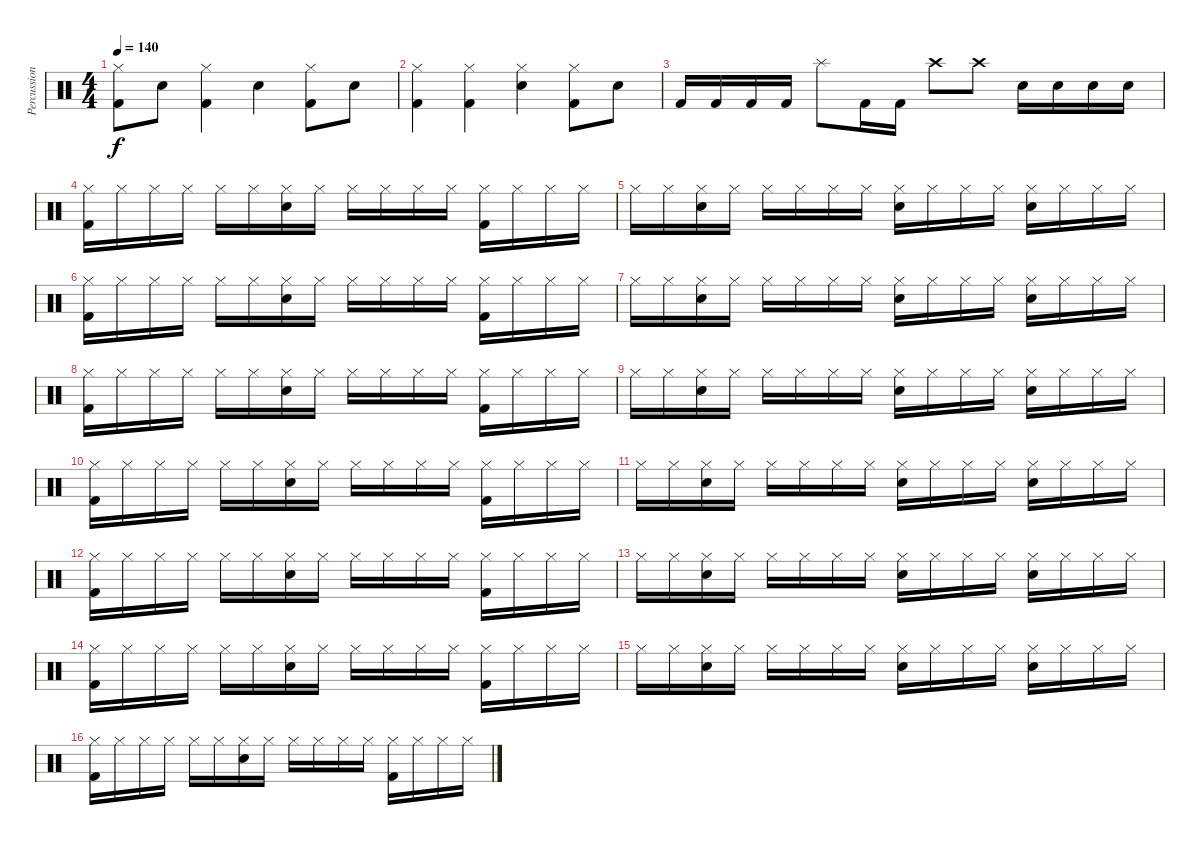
\track ("Percussion" "Percussion") {instrument percussion}
\staff {score}
\articulation defaults
\ts (4 4)
\tempo 140
\clef neutral
\ks c
("Hi-Hat (closed)" "Kick (hit) 2").8{dy f} "Electric Snare (hit)".8 ("Hi-Hat (closed)" "Kick (hit) 2").4 "Electric Snare (hit)".4 ("Hi-Hat (closed)" "Kick (hit) 2").8 "Electric Snare (hit)".8 |
("Hi-Hat (closed)" "Kick (hit) 2").4 ("Hi-Hat (closed)" "Kick (hit) 2").4 ("Hi-Hat (closed)" "Electric Snare (hit)").4 ("Hi-Hat (closed)" "Kick (hit) 2").8 "Electric Snare (hit)".8 |
"Kick (hit) 2".16 "Kick (hit) 2".16 "Kick (hit) 2".16 "Kick (hit) 2".16 "Splash (hit)".8 "Kick (hit) 2".16 "Kick (hit) 2".16 "Crash high (hit)".8 "Crash high (hit)".8 "Electric Snare (hit)".16 "Electric Snare (hit)".16 "Electric Snare (hit)".16 "Electric Snare (hit)".16 |
("Hi-Hat (closed)" "Kick (hit) 2").16 "Hi-Hat (closed)".16 "Hi-Hat (closed)".16 "Hi-Hat (closed)".16 "Hi-Hat (closed)".16 "Hi-Hat (closed)".16 ("Hi-Hat (closed)" "Electric Snare (hit)").16 "Hi-Hat (closed)".16 "Hi-Hat (closed)".16 "Hi-Hat (closed)".16 "Hi-Hat (closed)".16 "Hi-Hat (closed)".16 ("Hi-Hat (closed)" "Kick (hit) 2").16 "Hi-Hat (closed)".16 "Hi-Hat (closed)".16 "Hi-Hat (closed)".16 |
"Hi-Hat (closed)".16 "Hi-Hat (closed)".16 ("Hi-Hat (closed)" "Electric Snare (hit)").16 "Hi-Hat (closed)".16 "Hi-Hat (closed)".16 "Hi-Hat (closed)".16 "Hi-Hat (closed)".16 "Hi-Hat (closed)".16 ("Hi-Hat (closed)" "Electric Snare (hit)").16 "Hi-Hat (closed)".16 "Hi-Hat (closed)".16 "Hi-Hat (closed)".16 ("Hi-Hat (closed)" "Electric Snare (hit)").16 "Hi-Hat (closed)".16 "Hi-Hat (closed)".16 "Hi-Hat (closed)".16 |
("Hi-Hat (closed)" "Kick (hit) 2").16 "Hi-Hat (closed)".16 "Hi-Hat (closed)".16 "Hi-Hat (closed)".16 "Hi-Hat (closed)".16 "Hi-Hat (closed)".16 ("Hi-Hat (closed)" "Electric Snare (hit)").16 "Hi-Hat (closed)".16 "Hi-Hat (closed)".16 "Hi-Hat (closed)".16 "Hi-Hat (closed)".16 "Hi-Hat (closed)".16 ("Hi-Hat (closed)" "Kick (hit) 2").16 "Hi-Hat (closed)".16 "Hi-Hat (closed)".16 "Hi-Hat (closed)".16 |
"Hi-Hat (closed)".16 "Hi-Hat (closed)".16 ("Hi-Hat (closed)" "Electric Snare (hit)").16 "Hi-Hat (closed)".16 "Hi-Hat (closed)".16 "Hi-Hat (closed)".16 "Hi-Hat (closed)".16 "Hi-Hat (closed)".16 ("Hi-Hat (closed)" "Electric Snare (hit)").16 "Hi-Hat (closed)".16 "Hi-Hat (closed)".16 "Hi-Hat (closed)".16 ("Hi-Hat (closed)" "Electric Snare (hit)").16 "Hi-Hat (closed)".16 "Hi-Hat (closed)".16 "Hi-Hat (closed)".16 |
("Hi-Hat (closed)" "Kick (hit) 2").16 "Hi-Hat (closed)".16 "Hi-Hat (closed)".16 "Hi-Hat (closed)".16 "Hi-Hat (closed)".16 "Hi-Hat (closed)".16 ("Hi-Hat (closed)" "Electric Snare (hit)").16 "Hi-Hat (closed)".16 "Hi-Hat (closed)".16 "Hi-Hat (closed)".16 "Hi-Hat (closed)".16 "Hi-Hat (closed)".16 ("Hi-Hat (closed)" "Kick (hit) 2").16 "Hi-Hat (closed)".16 "Hi-Hat (closed)".16 "Hi-Hat (closed)".16 |
"Hi-Hat (closed)".16 "Hi-Hat (closed)".16 ("Hi-Hat (closed)" "Electric Snare (hit)").16 "Hi-Hat (closed)".16 "Hi-Hat (closed)".16 "Hi-Hat (closed)".16 "Hi-Hat (closed)".16 "Hi-Hat (closed)".16 ("Hi-Hat (closed)" "Electric Snare (hit)").16 "Hi-Hat (closed)".16 "Hi-Hat (closed)".16 "Hi-Hat (closed)".16 ("Hi-Hat (closed)" "Electric Snare (hit)").16 "Hi-Hat (closed)".16 "Hi-Hat (closed)".16 "Hi-Hat (closed)".16 |
("Hi-Hat (closed)" "Kick (hit) 2").16 "Hi-Hat (closed)".16 "Hi-Hat (closed)".16 "Hi-Hat (closed)".16 "Hi-Hat (closed)".16 "Hi-Hat (closed)".16 ("Hi-Hat (closed)" "Electric Snare (hit)").16 "Hi-Hat (closed)".16 "Hi-Hat (closed)".16 "Hi-Hat (closed)".16 "Hi-Hat (closed)".16 "Hi-Hat (closed)".16 ("Hi-Hat (closed)" "Kick (hit) 2").16 "Hi-Hat (closed)".16 "Hi-Hat (closed)".16 "Hi-Hat (closed)".16 |
"Hi-Hat (closed)".16 "Hi-Hat (closed)".16 ("Hi-Hat (closed)" "Electric Snare (hit)").16 "Hi-Hat (closed)".16 "Hi-Hat (closed)".16 "Hi-Hat (closed)".16 "Hi-Hat (closed)".16 "Hi-Hat (closed)".16 ("Hi-Hat (closed)" "Electric Snare (hit)").16 "Hi-Hat (closed)".16 "Hi-Hat (closed)".16 "Hi-Hat (closed)".16 ("Hi-Hat (closed)" "Electric Snare (hit)").16 "Hi-Hat (closed)".16 "Hi-Hat (closed)".16 "Hi-Hat (closed)".16 |
("Hi-Hat (closed)" "Kick (hit) 2").16 "Hi-Hat (closed)".16 "Hi-Hat (closed)".16 "Hi-Hat (closed)".16 "Hi-Hat (closed)".16 "Hi-Hat (closed)".16 ("Hi-Hat (closed)" "Electric Snare (hit)").16 "Hi-Hat (closed)".16 "Hi-Hat (closed)".16 "Hi-Hat (closed)".16 "Hi-Hat (closed)".16 "Hi-Hat (closed)".16 ("Hi-Hat (closed)" "Kick (hit) 2").16 "Hi-Hat (closed)".16 "Hi-Hat (closed)".16 "Hi-Hat (closed)".16 |
"Hi-Hat (closed)".16 "Hi-Hat (closed)".16 ("Hi-Hat (closed)" "Electric Snare (hit)").16 "Hi-Hat (closed)".16 "Hi-Hat (closed)".16 "Hi-Hat (closed)".16 "Hi-Hat (closed)".16 "Hi-Hat (closed)".16 ("Hi-Hat (closed)" "Electric Snare (hit)").16 "Hi-Hat (closed)".16 "Hi-Hat (closed)".16 "Hi-Hat (closed)".16 ("Hi-Hat (closed)" "Electric Snare (hit)").16 "Hi-Hat (closed)".16 "Hi-Hat (closed)".16 "Hi-Hat (closed)".16 |
("Hi-Hat (closed)" "Kick (hit) 2").16 "Hi-Hat (closed)".16 "Hi-Hat (closed)".16 "Hi-Hat (closed)".16 "Hi-Hat (closed)".16 "Hi-Hat (closed)".16 ("Hi-Hat (closed)" "Electric Snare (hit)").16 "Hi-Hat (closed)".16 "Hi-Hat (closed)".16 "Hi-Hat (closed)".16 "Hi-Hat (closed)".16 "Hi-Hat (closed)".16 ("Hi-Hat (closed)" "Kick (hit) 2").16 "Hi-Hat (closed)".16 "Hi-Hat (closed)".16 "Hi-Hat (closed)".16 |
"Hi-Hat (closed)".16 "Hi-Hat (closed)".16 ("Hi-Hat (closed)" "Electric Snare (hit)").16 "Hi-Hat (closed)".16 "Hi-Hat (closed)".16 "Hi-Hat (closed)".16 "Hi-Hat (closed)".16 "Hi-Hat (closed)".16 ("Hi-Hat (closed)" "Electric Snare (hit)").16 "Hi-Hat (closed)".16 "Hi-Hat (closed)".16 "Hi-Hat (closed)".16 ("Hi-Hat (closed)" "Electric Snare (hit)").16 "Hi-Hat (closed)".16 "Hi-Hat (closed)".16 "Hi-Hat (closed)".16 |
("Hi-Hat (closed)" "Kick (hit) 2").16 "Hi-Hat (closed)".16 "Hi-Hat (closed)".16 "Hi-Hat (closed)".16 "Hi-Hat (closed)".16 "Hi-Hat (closed)".16 ("Hi-Hat (closed)" "Electric Snare (hit)").16 "Hi-Hat (closed)".16 "Hi-Hat (closed)".16 "Hi-Hat (closed)".16 "Hi-Hat (closed)".16 "Hi-Hat (closed)".16 ("Hi-Hat (closed)" "Kick (hit) 2").16 "Hi-Hat (closed)".16 "Hi-Hat (closed)".16 "Hi-Hat (closed)".16
